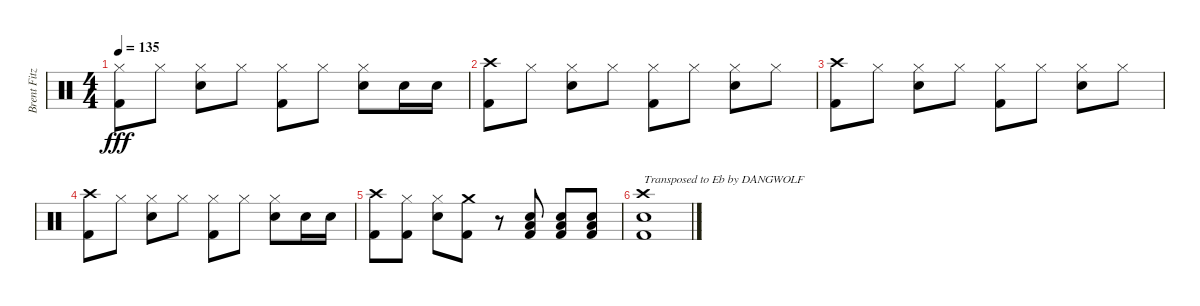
\track ("Brent Fitz" "Brent Fitz") {instrument percussion}
\staff {score}
\articulation defaults
\ts (4 4)
\tempo 135
\clef neutral
\ks c
("Hi-Hat (closed)" "Kick (hit) 2").8{dy fff} "Hi-Hat (closed)".8 ("Hi-Hat (closed)" "Snare (hit) 2").8 "Hi-Hat (closed)".8 ("Hi-Hat (closed)" "Kick (hit) 2").8 "Hi-Hat (closed)".8 ("Hi-Hat (closed)" "Snare (hit) 2").8 "Snare (hit) 2".16 "Snare (hit) 2".16 |
("Crash high (hit)" "Kick (hit) 2").8 "Hi-Hat (closed)".8 ("Hi-Hat (closed)" "Snare (hit) 2").8 "Hi-Hat (closed)".8 ("Hi-Hat (closed)" "Kick (hit) 2").8 "Hi-Hat (closed)".8 ("Hi-Hat (closed)" "Snare (hit) 2").8 "Hi-Hat (closed)".8 |
("Crash high (hit)" "Kick (hit) 2").8 "Hi-Hat (closed)".8 ("Hi-Hat (closed)" "Snare (hit) 2").8 "Hi-Hat (closed)".8 ("Hi-Hat (closed)" "Kick (hit) 2").8 "Hi-Hat (closed)".8 ("Hi-Hat (closed)" "Snare (hit) 2").8 "Hi-Hat (closed)".8 |
("Crash high (hit)" "Kick (hit) 2").8 "Hi-Hat (closed)".8 ("Hi-Hat (closed)" "Snare (hit) 2").8 "Hi-Hat (closed)".8 ("Hi-Hat (closed)" "Kick (hit) 2").8 "Hi-Hat (closed)".8 ("Hi-Hat (closed)" "Snare (hit) 2").8 "Snare (hit) 2".16 "Snare (hit) 2".16 |
("Crash high (hit)" "Kick (hit) 2").8 ("Hi-Hat (closed)" "Kick (hit) 2").8 ("Hi-Hat (closed)" "Snare (hit) 2").8 ("Crash medium (hit)" "Kick (hit) 2").8 r.8 ("Snare (hit) 2" "Low Floor Tom (hit)" "Kick (hit) 2").8 ("Snare (hit) 2" "Low Floor Tom (hit)" "Kick (hit) 2").8 ("Snare (hit) 2" "Low Floor Tom (hit)" "Kick (hit) 2").8 |
("Crash high (hit)" "Snare (hit) 2" "Kick (hit) 2").1{txt "Transposed to Eb by DANGWOLF"}
